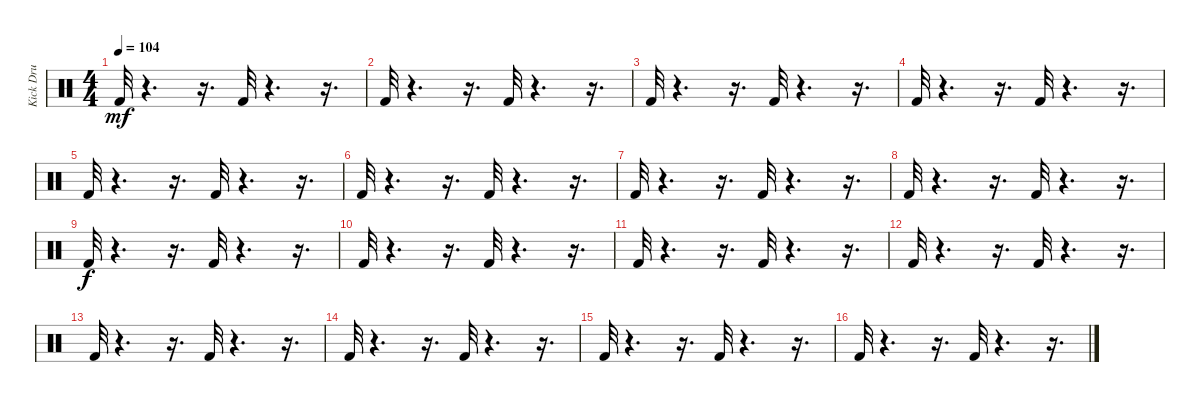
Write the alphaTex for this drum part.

\track ("  Kick Drum 1" "  Kick Dru") {instrument percussion}
\staff {score}
\articulation defaults
\ts (4 4)
\tempo 104
\clef neutral
\ks c "Kick (hit) 2".32{dy mf}
r.4{d} r.16{d} "Kick (hit) 2".32 r.4{d} r.16{d} |
"Kick (hit) 2".32 r.4{d} r.16{d} "Kick (hit) 2".32 r.4{d} r.16{d} |
"Kick (hit) 2".32 r.4{d} r.16{d} "Kick (hit) 2".32 r.4{d} r.16{d} |
"Kick (hit) 2".32 r.4{d} r.16{d} "Kick (hit) 2".32 r.4{d} r.16{d} |
"Kick (hit) 2".32 r.4{d} r.16{d} "Kick (hit) 2".32 r.4{d} r.16{d} |
"Kick (hit) 2".32 r.4{d} r.16{d} "Kick (hit) 2".32 r.4{d} r.16{d} |
"Kick (hit) 2".32 r.4{d} r.16{d} "Kick (hit) 2".32 r.4{d} r.16{d} |
"Kick (hit) 2".32 r.4{d} r.16{d} "Kick (hit) 2".32 r.4{d} r.16{d} |
"Kick (hit) 2".32{dy f} r.4{d} r.16{d} "Kick (hit) 2".32 r.4{d} r.16{d} |
"Kick (hit) 2".32 r.4{d} r.16{d} "Kick (hit) 2".32 r.4{d} r.16{d} |
"Kick (hit) 2".32 r.4{d} r.16{d} "Kick (hit) 2".32 r.4{d} r.16{d} |
"Kick (hit) 2".32 r.4{d} r.16{d} "Kick (hit) 2".32 r.4{d} r.16{d} |
"Kick (hit) 2".32 r.4{d} r.16{d} "Kick (hit) 2".32 r.4{d} r.16{d} |
"Kick (hit) 2".32 r.4{d} r.16{d} "Kick (hit) 2".32 r.4{d} r.16{d} |
"Kick (hit) 2".32 r.4{d} r.16{d} "Kick (hit) 2".32 r.4{d} r.16{d} |
"Kick (hit) 2".32 r.4{d} r.16{d} "Kick (hit) 2".32 r.4{d} r.16{d}
